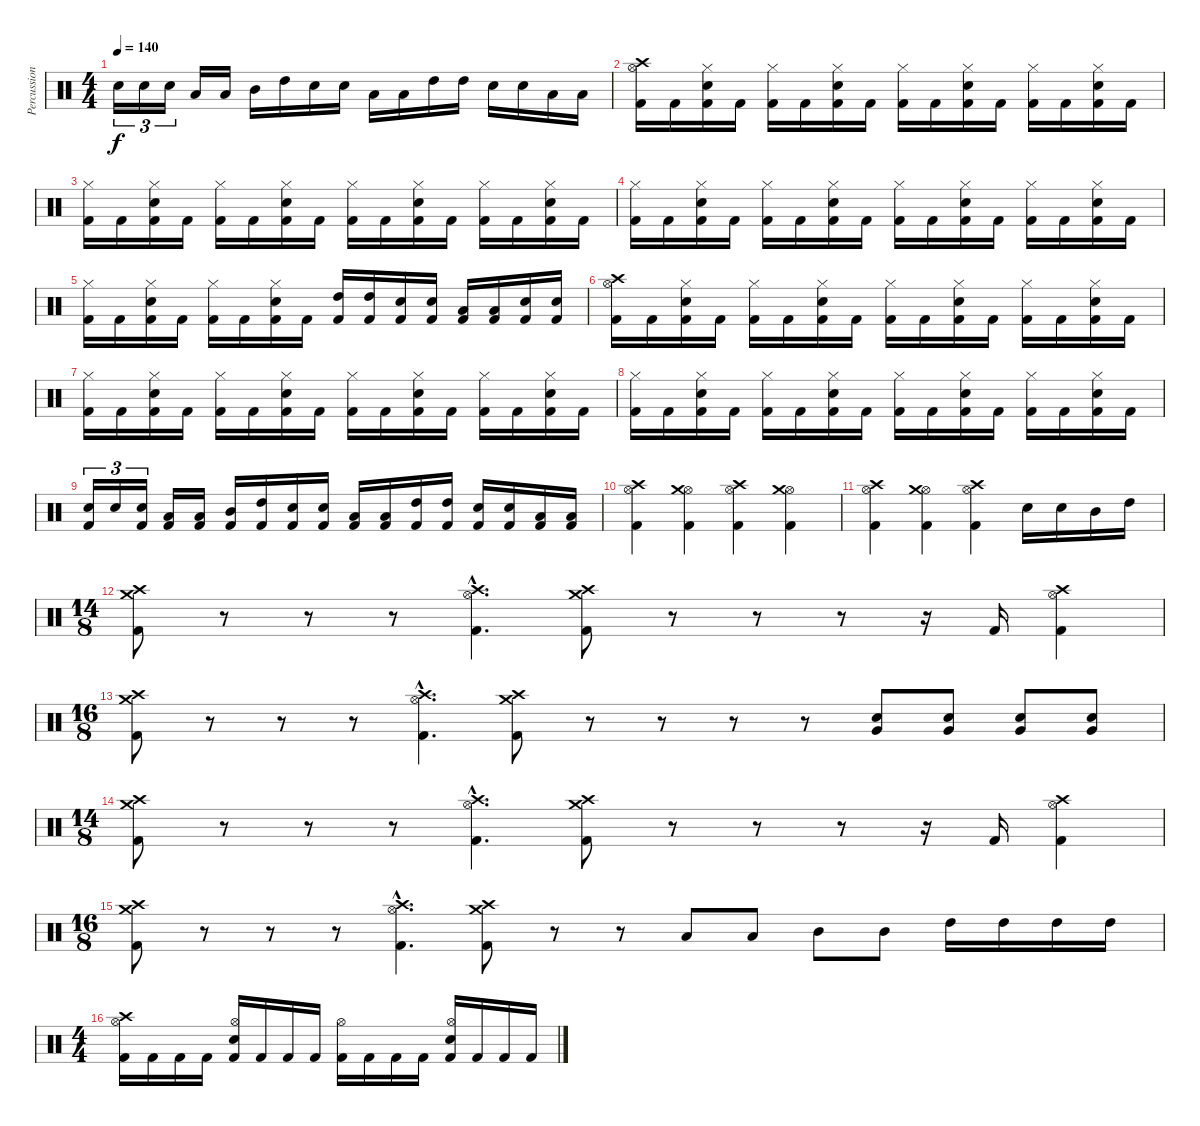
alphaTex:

\track ("Percussions" "Percussion") {instrument percussion}
\staff {score}
\articulation defaults
\ts (4 4)
\tempo 140
\clef neutral
\ks c "Snare (hit) 2".16{tu (3 2) dy f} "Snare (hit) 2".16{tu (3 2)} "Snare (hit) 2".16{tu (3 2)} "Low Tom (hit)".16 "Low Tom (hit)".16 "Mid Tom (hit)".16 "High Tom (hit)".16 "Snare (hit) 2".16 "Snare (hit) 2".16 "Low Tom (hit)".16 "Low Tom (hit)".16 "High Tom (hit)".16 "High Tom (hit)".16 "Snare (hit) 2".16 "Snare (hit) 2".16 "Low Tom (hit)".16 "Low Tom (hit)".16
|
("Hi-Hat (open)" "Crash high (hit)" "Kick (hit) 2").16 "Kick (hit) 2".16 ("Hi-Hat (closed)" "Snare (hit) 2" "Kick (hit) 2").16 "Kick (hit) 2".16 ("Hi-Hat (closed)" "Kick (hit) 2").16 "Kick (hit) 2".16 ("Hi-Hat (closed)" "Snare (hit) 2" "Kick (hit) 2").16 "Kick (hit) 2".16 ("Hi-Hat (closed)" "Kick (hit) 2").16 "Kick (hit) 2".16 ("Hi-Hat (closed)" "Snare (hit) 2" "Kick (hit) 2").16 "Kick (hit) 2".16 ("Hi-Hat (closed)" "Kick (hit) 2").16 "Kick (hit) 2".16 ("Hi-Hat (closed)" "Snare (hit) 2" "Kick (hit) 2").16 "Kick (hit) 2".16 |
("Hi-Hat (closed)" "Kick (hit) 2").16 "Kick (hit) 2".16 ("Hi-Hat (closed)" "Snare (hit) 2" "Kick (hit) 2").16 "Kick (hit) 2".16 ("Hi-Hat (closed)" "Kick (hit) 2").16 "Kick (hit) 2".16 ("Hi-Hat (closed)" "Snare (hit) 2" "Kick (hit) 2").16 "Kick (hit) 2".16 ("Hi-Hat (closed)" "Kick (hit) 2").16 "Kick (hit) 2".16 ("Hi-Hat (closed)" "Snare (hit) 2" "Kick (hit) 2").16 "Kick (hit) 2".16 ("Hi-Hat (closed)" "Kick (hit) 2").16 "Kick (hit) 2".16 ("Hi-Hat (closed)" "Snare (hit) 2" "Kick (hit) 2").16 "Kick (hit) 2".16 |
("Hi-Hat (closed)" "Kick (hit) 2").16 "Kick (hit) 2".16 ("Hi-Hat (closed)" "Snare (hit) 2" "Kick (hit) 2").16 "Kick (hit) 2".16 ("Hi-Hat (closed)" "Kick (hit) 2").16 "Kick (hit) 2".16 ("Hi-Hat (closed)" "Snare (hit) 2" "Kick (hit) 2").16 "Kick (hit) 2".16 ("Hi-Hat (closed)" "Kick (hit) 2").16 "Kick (hit) 2".16 ("Hi-Hat (closed)" "Snare (hit) 2" "Kick (hit) 2").16 "Kick (hit) 2".16 ("Hi-Hat (closed)" "Kick (hit) 2").16 "Kick (hit) 2".16 ("Hi-Hat (closed)" "Snare (hit) 2" "Kick (hit) 2").16 "Kick (hit) 2".16 |
("Hi-Hat (closed)" "Kick (hit) 2").16 "Kick (hit) 2".16 ("Hi-Hat (closed)" "Snare (hit) 2" "Kick (hit) 2").16 "Kick (hit) 2".16 ("Hi-Hat (closed)" "Kick (hit) 2").16 "Kick (hit) 2".16 ("Hi-Hat (closed)" "Snare (hit) 2" "Kick (hit) 2").16 "Kick (hit) 2".16 ("High Tom (hit)" "Kick (hit) 2").16 ("High Tom (hit)" "Kick (hit) 2").16 ("Snare (hit) 2" "Kick (hit) 2").16 ("Snare (hit) 2" "Kick (hit) 2").16 ("Low Tom (hit)" "Kick (hit) 2").16 ("Low Tom (hit)" "Kick (hit) 2").16 ("Snare (hit) 2" "Kick (hit) 2").16 ("Snare (hit) 2" "Kick (hit) 2").16 |
("Hi-Hat (open)" "Crash high (hit)" "Kick (hit) 2").16 "Kick (hit) 2".16 ("Hi-Hat (closed)" "Snare (hit) 2" "Kick (hit) 2").16 "Kick (hit) 2".16 ("Hi-Hat (closed)" "Kick (hit) 2").16 "Kick (hit) 2".16 ("Hi-Hat (closed)" "Snare (hit) 2" "Kick (hit) 2").16 "Kick (hit) 2".16 ("Hi-Hat (closed)" "Kick (hit) 2").16 "Kick (hit) 2".16 ("Hi-Hat (closed)" "Snare (hit) 2" "Kick (hit) 2").16 "Kick (hit) 2".16 ("Hi-Hat (closed)" "Kick (hit) 2").16 "Kick (hit) 2".16 ("Hi-Hat (closed)" "Snare (hit) 2" "Kick (hit) 2").16 "Kick (hit) 2".16 |
("Hi-Hat (closed)" "Kick (hit) 2").16 "Kick (hit) 2".16 ("Hi-Hat (closed)" "Snare (hit) 2" "Kick (hit) 2").16 "Kick (hit) 2".16 ("Hi-Hat (closed)" "Kick (hit) 2").16 "Kick (hit) 2".16 ("Hi-Hat (closed)" "Snare (hit) 2" "Kick (hit) 2").16 "Kick (hit) 2".16 ("Hi-Hat (closed)" "Kick (hit) 2").16 "Kick (hit) 2".16 ("Hi-Hat (closed)" "Snare (hit) 2" "Kick (hit) 2").16 "Kick (hit) 2".16 ("Hi-Hat (closed)" "Kick (hit) 2").16 "Kick (hit) 2".16 ("Hi-Hat (closed)" "Snare (hit) 2" "Kick (hit) 2").16 "Kick (hit) 2".16 |
("Hi-Hat (closed)" "Kick (hit) 2").16 "Kick (hit) 2".16 ("Hi-Hat (closed)" "Snare (hit) 2" "Kick (hit) 2").16 "Kick (hit) 2".16 ("Hi-Hat (closed)" "Kick (hit) 2").16 "Kick (hit) 2".16 ("Hi-Hat (closed)" "Snare (hit) 2" "Kick (hit) 2").16 "Kick (hit) 2".16 ("Hi-Hat (closed)" "Kick (hit) 2").16 "Kick (hit) 2".16 ("Hi-Hat (closed)" "Snare (hit) 2" "Kick (hit) 2").16 "Kick (hit) 2".16 ("Hi-Hat (closed)" "Kick (hit) 2").16 "Kick (hit) 2".16 ("Hi-Hat (closed)" "Snare (hit) 2" "Kick (hit) 2").16 "Kick (hit) 2".16 |
("Snare (hit) 2" "Kick (hit) 2").16{tu (3 2)} "Snare (hit) 2".16{tu (3 2)} ("Snare (hit) 2" "Kick (hit) 2").16{tu (3 2)} ("Low Tom (hit)" "Kick (hit) 2").16 ("Low Tom (hit)" "Kick (hit) 2").16 ("Mid Tom (hit)" "Kick (hit) 2").16 ("High Tom (hit)" "Kick (hit) 2").16 ("Snare (hit) 2" "Kick (hit) 2").16 ("Snare (hit) 2" "Kick (hit) 2").16 ("Low Tom (hit)" "Kick (hit) 2").16 ("Low Tom (hit)" "Kick (hit) 2").16 ("High Tom (hit)" "Kick (hit) 2").16 ("High Tom (hit)" "Kick (hit) 2").16 ("Snare (hit) 2" "Kick (hit) 2").16 ("Snare (hit) 2" "Kick (hit) 2").16 ("Low Tom (hit)" "Kick (hit) 2").16 ("Low Tom (hit)" "Kick (hit) 2").16 |
("Hi-Hat (open)" "Crash high (hit)" "Kick (hit) 2").4 ("Hi-Hat (open)" "Crash medium (hit)" "Kick (hit) 2").4 ("Hi-Hat (open)" "Crash high (hit)" "Kick (hit) 2").4 ("Hi-Hat (open)" "Crash medium (hit)" "Kick (hit) 2").4 |
("Hi-Hat (open)" "Crash high (hit)" "Kick (hit) 2").4 ("Hi-Hat (open)" "Crash medium (hit)" "Kick (hit) 2").4 ("Hi-Hat (open)" "Crash high (hit)" "Kick (hit) 2").4 "Snare (hit) 2".16 "Snare (hit) 2".16 "Mid Tom (hit)".16 "High Tom (hit)".16 |
\ts (14 8)
("Crash high (hit)" "Crash medium (hit)" "Kick (hit) 2").8 r.8 r.8 r.8 ("Hi-Hat (open)"{hac} "Crash high (hit)"{hac} "Kick (hit) 2"{hac}).4{d} ("Crash high (hit)" "Crash medium (hit)" "Kick (hit) 2").8 r.8 r.8 r.8 r.16 "Kick (hit) 2".16 ("Hi-Hat (open)" "Crash high (hit)" "Kick (hit) 2").4 |
\ts (16 8)
("Crash high (hit)" "Crash medium (hit)" "Kick (hit) 2").8 r.8 r.8 r.8 ("Hi-Hat (open)"{hac} "Crash high (hit)"{hac} "Kick (hit) 2"{hac}).4{d} ("Crash high (hit)" "Crash medium (hit)" "Kick (hit) 2").8 r.8 r.8 r.8 r.8 ("Snare (hit) 2" "Very Low Tom (hit)").8 ("Snare (hit) 2" "Very Low Tom (hit)").8 ("Snare (hit) 2" "Very Low Tom (hit)").8 ("Snare (hit) 2" "Very Low Tom (hit)").8 |
\ts (14 8)
("Crash high (hit)" "Crash medium (hit)" "Kick (hit) 2").8 r.8 r.8 r.8 ("Hi-Hat (open)"{hac} "Crash high (hit)"{hac} "Kick (hit) 2"{hac}).4{d} ("Crash high (hit)" "Crash medium (hit)" "Kick (hit) 2").8 r.8 r.8 r.8 r.16 "Kick (hit) 2".16 ("Hi-Hat (open)" "Crash high (hit)" "Kick (hit) 2").4 |
\ts (16 8)
("Crash high (hit)" "Crash medium (hit)" "Kick (hit) 2").8 r.8 r.8 r.8 ("Hi-Hat (open)"{hac} "Crash high (hit)"{hac} "Kick (hit) 2"{hac}).4{d} ("Crash high (hit)" "Crash medium (hit)" "Kick (hit) 2").8 r.8 r.8 "Low Tom (hit)".8 "Low Tom (hit)".8 "Mid Tom (hit)".8 "Mid Tom (hit)".8 "High Tom (hit)".16 "High Tom (hit)".16 "High Tom (hit)".16 "High Tom (hit)".16 |
\ts (4 4)
("Hi-Hat (open)" "Crash high (hit)" "Kick (hit) 2").16 "Kick (hit) 2".16 "Kick (hit) 2".16 "Kick (hit) 2".16 ("Hi-Hat (open)" "Snare (hit) 2" "Kick (hit) 2").16 "Kick (hit) 2".16 "Kick (hit) 2".16 "Kick (hit) 2".16 ("Hi-Hat (open)" "Kick (hit) 2").16 "Kick (hit) 2".16 "Kick (hit) 2".16 "Kick (hit) 2".16 ("Hi-Hat (open)" "Snare (hit) 2" "Kick (hit) 2").16 "Kick (hit) 2".16 "Kick (hit) 2".16 "Kick (hit) 2".16
